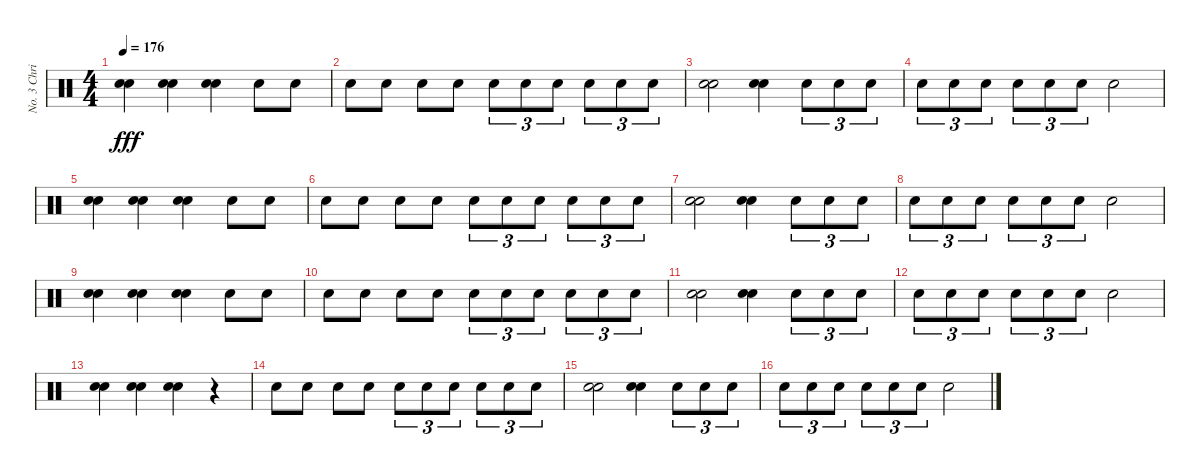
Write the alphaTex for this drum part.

\track ("No. 3 Chris" "No. 3 Chri") {instrument percussion}
\staff {score}
\articulation defaults
\ts (4 4)
\tempo 176
\clef neutral
\ks c
("Electric Snare (hit)" "Electric Snare (hit)").4{dy fff} ("Electric Snare (hit)" "Electric Snare (hit)").4 ("Electric Snare (hit)" "Electric Snare (hit)").4 "Electric Snare (hit)".8 "Electric Snare (hit)".8 |
"Electric Snare (hit)".8 "Electric Snare (hit)".8 "Electric Snare (hit)".8 "Electric Snare (hit)".8 "Electric Snare (hit)".8{tu (3 2)} "Electric Snare (hit)".8{tu (3 2)} "Electric Snare (hit)".8{tu (3 2)} "Electric Snare (hit)".8{tu (3 2)} "Electric Snare (hit)".8{tu (3 2)} "Electric Snare (hit)".8{tu (3 2)} |
("Electric Snare (hit)" "Electric Snare (hit)").2 ("Electric Snare (hit)" "Electric Snare (hit)").4 "Electric Snare (hit)".8{tu (3 2)} "Electric Snare (hit)".8{tu (3 2)} "Electric Snare (hit)".8{tu (3 2)} |
"Electric Snare (hit)".8{tu (3 2)} "Electric Snare (hit)".8{tu (3 2)} "Electric Snare (hit)".8{tu (3 2)} "Electric Snare (hit)".8{tu (3 2)} "Electric Snare (hit)".8{tu (3 2)} "Electric Snare (hit)".8{tu (3 2)} "Electric Snare (hit)".2 |
("Electric Snare (hit)" "Electric Snare (hit)").4 ("Electric Snare (hit)" "Electric Snare (hit)").4 ("Electric Snare (hit)" "Electric Snare (hit)").4 "Electric Snare (hit)".8 "Electric Snare (hit)".8 |
"Electric Snare (hit)".8 "Electric Snare (hit)".8 "Electric Snare (hit)".8 "Electric Snare (hit)".8 "Electric Snare (hit)".8{tu (3 2)} "Electric Snare (hit)".8{tu (3 2)} "Electric Snare (hit)".8{tu (3 2)} "Electric Snare (hit)".8{tu (3 2)} "Electric Snare (hit)".8{tu (3 2)} "Electric Snare (hit)".8{tu (3 2)} |
("Electric Snare (hit)" "Electric Snare (hit)").2 ("Electric Snare (hit)" "Electric Snare (hit)").4 "Electric Snare (hit)".8{tu (3 2)} "Electric Snare (hit)".8{tu (3 2)} "Electric Snare (hit)".8{tu (3 2)} |
"Electric Snare (hit)".8{tu (3 2)} "Electric Snare (hit)".8{tu (3 2)} "Electric Snare (hit)".8{tu (3 2)} "Electric Snare (hit)".8{tu (3 2)} "Electric Snare (hit)".8{tu (3 2)} "Electric Snare (hit)".8{tu (3 2)} "Electric Snare (hit)".2 |
("Electric Snare (hit)" "Electric Snare (hit)").4 ("Electric Snare (hit)" "Electric Snare (hit)").4 ("Electric Snare (hit)" "Electric Snare (hit)").4 "Electric Snare (hit)".8 "Electric Snare (hit)".8 |
"Electric Snare (hit)".8 "Electric Snare (hit)".8 "Electric Snare (hit)".8 "Electric Snare (hit)".8 "Electric Snare (hit)".8{tu (3 2)} "Electric Snare (hit)".8{tu (3 2)} "Electric Snare (hit)".8{tu (3 2)} "Electric Snare (hit)".8{tu (3 2)} "Electric Snare (hit)".8{tu (3 2)} "Electric Snare (hit)".8{tu (3 2)} |
("Electric Snare (hit)" "Electric Snare (hit)").2 ("Electric Snare (hit)" "Electric Snare (hit)").4 "Electric Snare (hit)".8{tu (3 2)} "Electric Snare (hit)".8{tu (3 2)} "Electric Snare (hit)".8{tu (3 2)} |
"Electric Snare (hit)".8{tu (3 2)} "Electric Snare (hit)".8{tu (3 2)} "Electric Snare (hit)".8{tu (3 2)} "Electric Snare (hit)".8{tu (3 2)} "Electric Snare (hit)".8{tu (3 2)} "Electric Snare (hit)".8{tu (3 2)} "Electric Snare (hit)".2 |
("Electric Snare (hit)" "Electric Snare (hit)").4 ("Electric Snare (hit)" "Electric Snare (hit)").4 ("Electric Snare (hit)" "Electric Snare (hit)").4 r.4 |
"Electric Snare (hit)".8 "Electric Snare (hit)".8 "Electric Snare (hit)".8 "Electric Snare (hit)".8 "Electric Snare (hit)".8{tu (3 2)} "Electric Snare (hit)".8{tu (3 2)} "Electric Snare (hit)".8{tu (3 2)} "Electric Snare (hit)".8{tu (3 2)} "Electric Snare (hit)".8{tu (3 2)} "Electric Snare (hit)".8{tu (3 2)} |
("Electric Snare (hit)" "Electric Snare (hit)").2 ("Electric Snare (hit)" "Electric Snare (hit)").4 "Electric Snare (hit)".8{tu (3 2)} "Electric Snare (hit)".8{tu (3 2)} "Electric Snare (hit)".8{tu (3 2)} |
"Electric Snare (hit)".8{tu (3 2)} "Electric Snare (hit)".8{tu (3 2)} "Electric Snare (hit)".8{tu (3 2)} "Electric Snare (hit)".8{tu (3 2)} "Electric Snare (hit)".8{tu (3 2)} "Electric Snare (hit)".8{tu (3 2)} "Electric Snare (hit)".2
